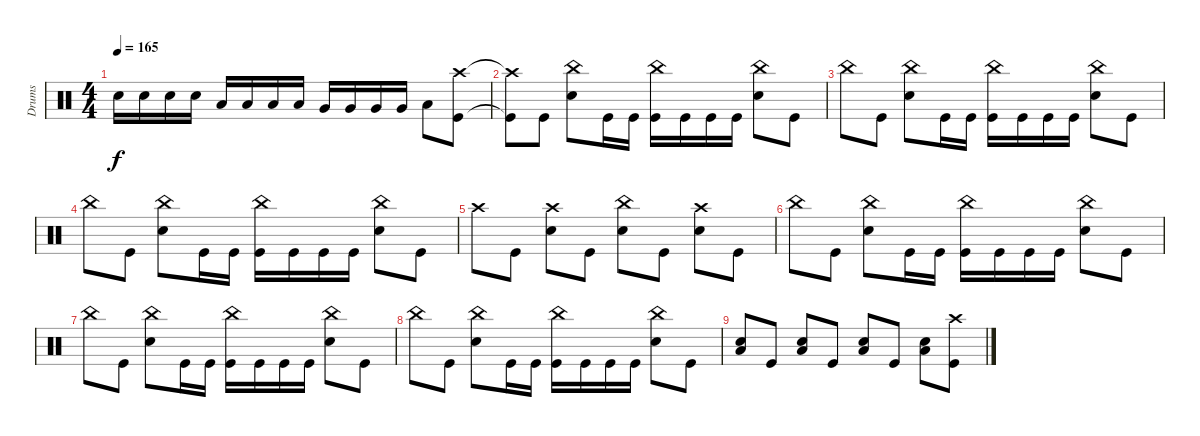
\track ("Drums" "Drums") {instrument percussion}
\staff {score}
\articulation defaults
\ts (4 4)
\tempo 165
\clef neutral
\ks c "Snare (hit) 2".16{dy f} "Snare (hit) 2".16 "Snare (hit) 2".16 "Snare (hit) 2".16 "Low Tom (hit)".16 "Low Tom (hit)".16 "Low Tom (hit)".16 "Low Tom (hit)".16 "Very Low Tom (hit)".16 "Very Low Tom (hit)".16 "Very Low Tom (hit)".16 "Very Low Tom (hit)".16 "Low Floor Tom (hit)".8
("Kick (hit)" "Crash high (hit)").8 |
("Kick (hit)"{t} "Crash high (hit)"{t}).8 "Kick (hit)".8 ("Snare (hit) 2" "China (hit)").8 "Kick (hit)".16 "Kick (hit)".16 ("Kick (hit)" "China (hit)").16 "Kick (hit)".16 "Kick (hit)".16 "Kick (hit)".16 ("Snare (hit) 2" "China (hit)").8 "Kick (hit)".8 |
"China (hit)".8 "Kick (hit)".8 ("Snare (hit) 2" "China (hit)").8 "Kick (hit)".16 "Kick (hit)".16 ("Kick (hit)" "China (hit)").16 "Kick (hit)".16 "Kick (hit)".16 "Kick (hit)".16 ("Snare (hit) 2" "China (hit)").8 "Kick (hit)".8 |
"China (hit)".8 "Kick (hit)".8 ("Snare (hit) 2" "China (hit)").8 "Kick (hit)".16 "Kick (hit)".16 ("Kick (hit)" "China (hit)").16 "Kick (hit)".16 "Kick (hit)".16 "Kick (hit)".16 ("Snare (hit) 2" "China (hit)").8 "Kick (hit)".8 |
"Crash high (hit)".8 "Kick (hit)".8 ("Snare (hit) 2" "Crash high (hit)").8 "Kick (hit)".8 ("Snare (hit) 2" "China (hit)").8 "Kick (hit)".8 ("Snare (hit) 2" "Crash high (hit)").8 "Kick (hit)".8 |
"China (hit)".8 "Kick (hit)".8 ("Snare (hit) 2" "China (hit)").8 "Kick (hit)".16 "Kick (hit)".16 ("Kick (hit)" "China (hit)").16 "Kick (hit)".16 "Kick (hit)".16 "Kick (hit)".16 ("Snare (hit) 2" "China (hit)").8 "Kick (hit)".8 |
"China (hit)".8 "Kick (hit)".8 ("Snare (hit) 2" "China (hit)").8 "Kick (hit)".16 "Kick (hit)".16 ("Kick (hit)" "China (hit)").16 "Kick (hit)".16 "Kick (hit)".16 "Kick (hit)".16 ("Snare (hit) 2" "China (hit)").8 "Kick (hit)".8 |
"China (hit)".8 "Kick (hit)".8 ("Snare (hit) 2" "China (hit)").8 "Kick (hit)".16 "Kick (hit)".16 ("Kick (hit)" "China (hit)").16 "Kick (hit)".16 "Kick (hit)".16 "Kick (hit)".16 ("Snare (hit) 2" "China (hit)").8 "Kick (hit)".8 |
("Snare (hit) 2" "Low Floor Tom (hit)").8 "Kick (hit)".8 ("Snare (hit) 2" "Low Floor Tom (hit)").8 "Kick (hit)".8 ("Snare (hit) 2" "Low Floor Tom (hit)").8 "Kick (hit)".8 ("Snare (hit) 2" "Low Floor Tom (hit)").8 ("Kick (hit)" "Crash high (hit)").8
